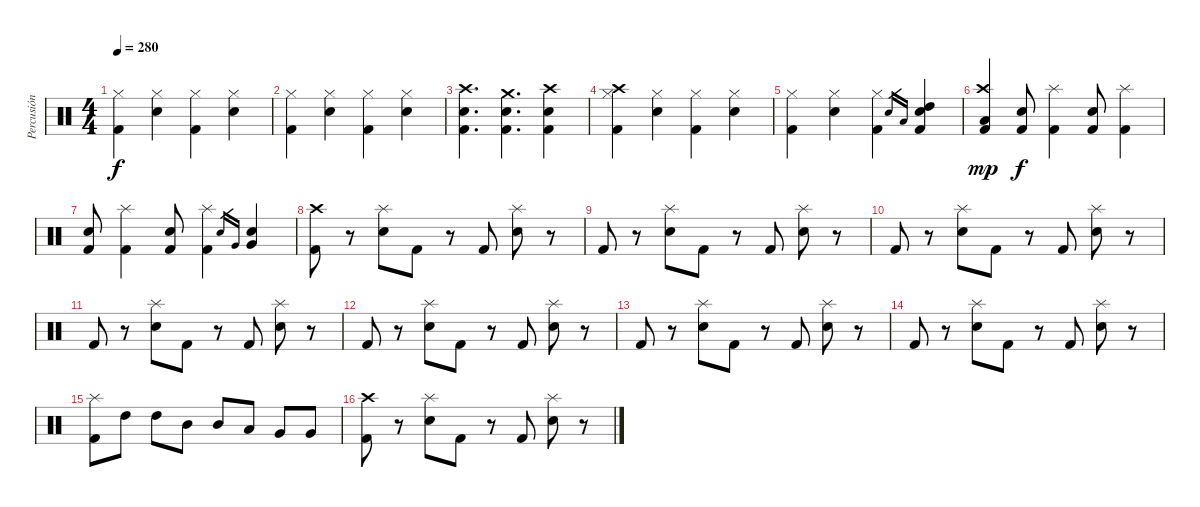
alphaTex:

\track ("Percusión" "Percusión") {instrument percussion}
\staff {score}
\articulation defaults
\ts (4 4)
\tempo 280
\clef neutral
\ks c
("Hi-Hat (closed)" "Kick (hit) 2").4{dy f} ("Snare (hit) 2" "Hi-Hat (closed)").4 ("Hi-Hat (closed)" "Kick (hit) 2").4 ("Snare (hit) 2" "Hi-Hat (closed)").4 |
("Hi-Hat (closed)" "Kick (hit) 2").4 ("Snare (hit) 2" "Hi-Hat (closed)").4 ("Hi-Hat (closed)" "Kick (hit) 2").4 ("Snare (hit) 2" "Hi-Hat (closed)").4 |
("Crash high (hit)" "Snare (hit) 2" "Kick (hit) 2").4{d} ("Crash medium (hit)" "Snare (hit) 2" "Kick (hit) 2").4{d} ("Crash high (hit)" "Snare (hit) 2" "Kick (hit) 2").4 |
("Crash high (hit)" "Hi-Hat (closed)" "Kick (hit) 2").4 ("Snare (hit) 2" "Hi-Hat (closed)").4 ("Hi-Hat (closed)" "Kick (hit) 2").4 ("Snare (hit) 2" "Hi-Hat (closed)").4 |
("Hi-Hat (closed)" "Kick (hit) 2").4 ("Snare (hit) 2" "Hi-Hat (closed)").4 ("Hi-Hat (closed)" "Kick (hit) 2").4 "Snare (hit) 2".16{gr} "Low Tom (hit)".16{gr} ("Snare (hit) 2" "High Tom (hit)" "Kick (hit) 2").4 |
("Low Tom (hit)" "Crash high (hit)" "Kick (hit) 2").4{dy mp} ("Snare (hit) 2" "Kick (hit) 2").8{dy f} ("Splash (hit)" "Kick (hit) 2").4 ("Snare (hit) 2" "Kick (hit) 2").8 ("Splash (hit)" "Kick (hit) 2").4 |
("Snare (hit) 2" "Kick (hit) 2").8 ("Splash (hit)" "Kick (hit) 2").4 ("Snare (hit) 2" "Kick (hit) 2").8 ("Splash (hit)" "Kick (hit) 2").4 "Snare (hit) 2".16{gr} "Very Low Tom (hit)".16{gr} ("Snare (hit) 2" "Very Low Tom (hit)").4 |
("Crash high (hit)" "Kick (hit) 2").8 r.8 ("Snare (hit) 2" "Splash (hit)").8 "Kick (hit) 2".8 r.8 "Kick (hit) 2".8 ("Snare (hit) 2" "Splash (hit)").8 r.8 |
"Kick (hit) 2".8 r.8 ("Snare (hit) 2" "Splash (hit)").8 "Kick (hit) 2".8 r.8 "Kick (hit) 2".8 ("Snare (hit) 2" "Splash (hit)").8 r.8 |
"Kick (hit) 2".8 r.8 ("Snare (hit) 2" "Splash (hit)").8 "Kick (hit) 2".8 r.8 "Kick (hit) 2".8 ("Snare (hit) 2" "Splash (hit)").8 r.8 |
"Kick (hit) 2".8 r.8 ("Snare (hit) 2" "Splash (hit)").8 "Kick (hit) 2".8 r.8 "Kick (hit) 2".8 ("Snare (hit) 2" "Splash (hit)").8 r.8 |
"Kick (hit) 2".8 r.8 ("Snare (hit) 2" "Splash (hit)").8 "Kick (hit) 2".8 r.8 "Kick (hit) 2".8 ("Snare (hit) 2" "Splash (hit)").8 r.8 |
"Kick (hit) 2".8 r.8 ("Snare (hit) 2" "Splash (hit)").8 "Kick (hit) 2".8 r.8 "Kick (hit) 2".8 ("Snare (hit) 2" "Splash (hit)").8 r.8 |
"Kick (hit) 2".8 r.8 ("Snare (hit) 2" "Splash (hit)").8 "Kick (hit) 2".8 r.8 "Kick (hit) 2".8 ("Snare (hit) 2" "Splash (hit)").8 r.8 |
("Splash (hit)" "Kick (hit) 2").8 "High Tom (hit)".8 "High Tom (hit)".8 "Mid Tom (hit)".8 "Mid Tom (hit)".8 "Low Tom (hit)".8 "Very Low Tom (hit)".8 "Very Low Tom (hit)".8 |
("Crash high (hit)" "Kick (hit) 2").8 r.8 ("Snare (hit) 2" "Splash (hit)").8 "Kick (hit) 2".8 r.8 "Kick (hit) 2".8 ("Snare (hit) 2" "Splash (hit)").8 r.8
